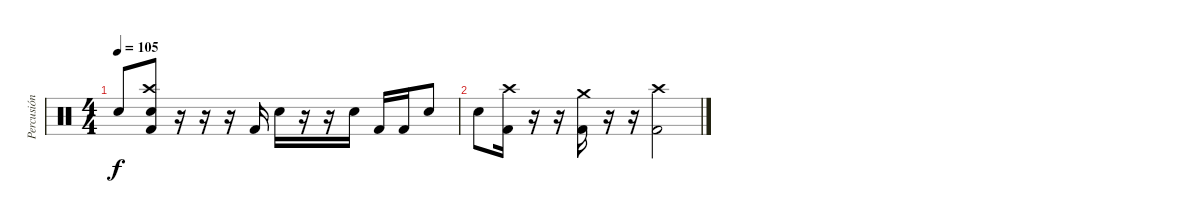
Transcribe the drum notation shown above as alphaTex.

\track ("Percusión" "Percusión") {instrument percussion}
\staff {score}
\articulation defaults
\ts (4 4)
\tempo 105
\clef neutral
\ks c "Electric Snare (hit)".8{dy f}
("Crash high (hit)" "Electric Snare (hit)" "Kick (hit) 2").8 r.16 r.16 r.16 "Kick (hit) 2".16 "Electric Snare (hit)".16 r.16 r.16 "Electric Snare (hit)".16 "Kick (hit) 2".16 "Kick (hit) 2".16 "Electric Snare (hit)".8 |
"Electric Snare (hit)".8 ("Crash high (hit)" "Kick (hit) 2").16 r.16 r.16 ("Crash medium (hit)" "Kick (hit) 2").16 r.16 r.16 ("Crash high (hit)" "Kick (hit) 2").2
